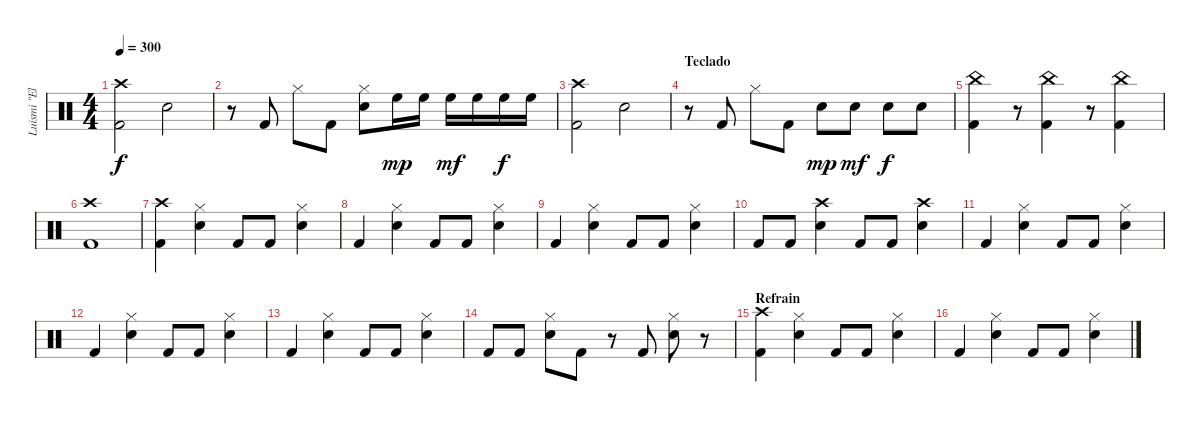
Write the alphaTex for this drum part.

\track ("Luismi \"El Papi\"" "Luismi \"El") {instrument percussion}
\staff {score}
\articulation defaults
\ts (4 4)
\tempo 300
\clef neutral
\ks c
("Crash high (hit)" "Kick (hit) 2").2{dy f} "Snare (hit) 2".2 |
r.8 "Kick (hit) 2".8 "Hi-Hat (closed)".8 "Kick (hit) 2".8 ("Hi-Hat (closed)" "Snare (hit) 2").8 "High Floor Tom (hit)".16{dy mp} "High Floor Tom (hit)".16 "High Floor Tom (hit)".16{dy mf} "High Floor Tom (hit)".16 "High Floor Tom (hit)".16{dy f} "High Floor Tom (hit)".16 |
("Crash high (hit)" "Kick (hit) 2").2 "Snare (hit) 2".2 |
\section ("" "Teclado")
r.8 "Kick (hit) 2".8 "Hi-Hat (closed)".8 "Kick (hit) 2".8 "Snare (hit) 2".8{dy mp} "Snare (hit) 2".8{dy mf} "Snare (hit) 2".8{dy f} "Snare (hit) 2".8 |
("China (hit)" "Kick (hit) 2").4 r.8 ("China (hit)" "Kick (hit) 2").4 r.8 ("China (hit)" "Kick (hit) 2").4 |
("Crash high (hit)" "Kick (hit) 2").1 |
("Crash high (hit)" "Kick (hit) 2").4 ("Hi-Hat (closed)" "Snare (hit) 2").4 "Kick (hit) 2".8 "Kick (hit) 2".8 ("Hi-Hat (closed)" "Snare (hit) 2").4 |
"Kick (hit) 2".4 ("Hi-Hat (closed)" "Snare (hit) 2").4 "Kick (hit) 2".8 "Kick (hit) 2".8 ("Hi-Hat (closed)" "Snare (hit) 2").4 |
"Kick (hit) 2".4 ("Hi-Hat (closed)" "Snare (hit) 2").4 "Kick (hit) 2".8 "Kick (hit) 2".8 ("Hi-Hat (closed)" "Snare (hit) 2").4 |
"Kick (hit) 2".8 "Kick (hit) 2".8 ("Crash high (hit)" "Snare (hit) 2").4 "Kick (hit) 2".8 "Kick (hit) 2".8 ("Crash high (hit)" "Snare (hit) 2").4 |
"Kick (hit) 2".4 ("Hi-Hat (closed)" "Snare (hit) 2").4 "Kick (hit) 2".8 "Kick (hit) 2".8 ("Hi-Hat (closed)" "Snare (hit) 2").4 |
"Kick (hit) 2".4 ("Hi-Hat (closed)" "Snare (hit) 2").4 "Kick (hit) 2".8 "Kick (hit) 2".8 ("Hi-Hat (closed)" "Snare (hit) 2").4 |
"Kick (hit) 2".4 ("Hi-Hat (closed)" "Snare (hit) 2").4 "Kick (hit) 2".8 "Kick (hit) 2".8 ("Hi-Hat (closed)" "Snare (hit) 2").4 |
"Kick (hit) 2".8 "Kick (hit) 2".8 ("Hi-Hat (closed)" "Snare (hit) 2").8 "Kick (hit) 2".8 r.8 "Kick (hit) 2".8 ("Hi-Hat (closed)" "Snare (hit) 2").8 r.8 |
\section ("" "Refrain")
("Crash high (hit)" "Kick (hit) 2").4 ("Hi-Hat (closed)" "Snare (hit) 2").4 "Kick (hit) 2".8 "Kick (hit) 2".8 ("Hi-Hat (closed)" "Snare (hit) 2").4 |
"Kick (hit) 2".4 ("Hi-Hat (closed)" "Snare (hit) 2").4 "Kick (hit) 2".8 "Kick (hit) 2".8 ("Hi-Hat (closed)" "Snare (hit) 2").4
